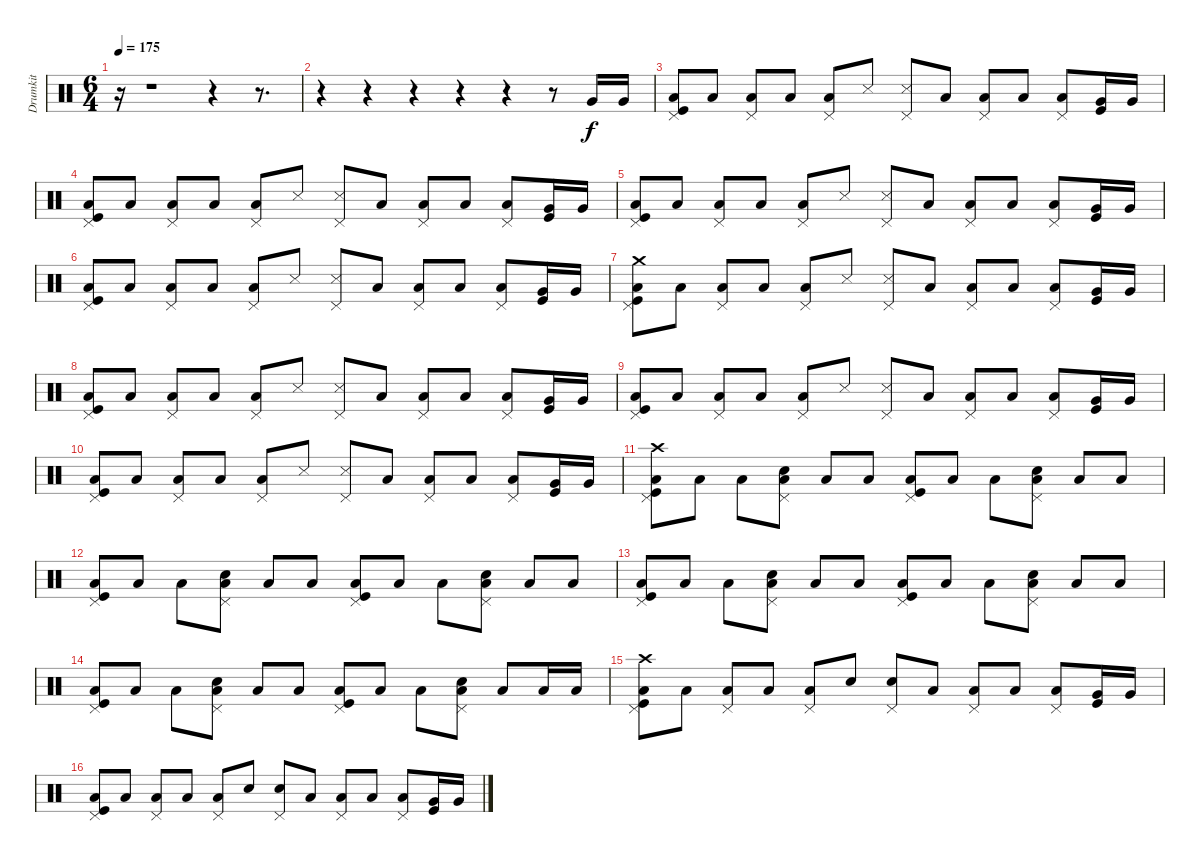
\track ("Drumkit" "Drumkit") {instrument percussion}
\staff {score}
\articulation defaults
\ts (6 4)
\tempo 175
\clef neutral
\ks c
r.16{dy f} r.1 r.4 r.8{d} |
r.4 r.4 r.4 r.4 r.4 r.8 "Very Low Tom (hit)".16 "Very Low Tom (hit)".16 |
("Low Floor Tom (hit)" "Kick (hit)" "Pedal Hi-Hat (hit)").8 "Low Floor Tom (hit)".8 ("Low Floor Tom (hit)" "Pedal Hi-Hat (hit)").8 "Low Floor Tom (hit)".8 ("Low Floor Tom (hit)" "Pedal Hi-Hat (hit)").8 "Snare (side stick) 3".8 ("Snare (side stick) 3" "Pedal Hi-Hat (hit)").8 "Low Floor Tom (hit)".8 ("Low Floor Tom (hit)" "Pedal Hi-Hat (hit)").8 "Low Floor Tom (hit)".8 ("Low Floor Tom (hit)" "Pedal Hi-Hat (hit)").8 ("Very Low Tom (hit)" "Kick (hit)").16 "Very Low Tom (hit)".16 |
("Low Floor Tom (hit)" "Kick (hit)" "Pedal Hi-Hat (hit)").8 "Low Floor Tom (hit)".8 ("Low Floor Tom (hit)" "Pedal Hi-Hat (hit)").8 "Low Floor Tom (hit)".8 ("Low Floor Tom (hit)" "Pedal Hi-Hat (hit)").8 "Snare (side stick) 3".8 ("Snare (side stick) 3" "Pedal Hi-Hat (hit)").8 "Low Floor Tom (hit)".8 ("Low Floor Tom (hit)" "Pedal Hi-Hat (hit)").8 "Low Floor Tom (hit)".8 ("Low Floor Tom (hit)" "Pedal Hi-Hat (hit)").8 ("Very Low Tom (hit)" "Kick (hit)").16 "Very Low Tom (hit)".16 |
("Low Floor Tom (hit)" "Kick (hit)" "Pedal Hi-Hat (hit)").8 "Low Floor Tom (hit)".8 ("Low Floor Tom (hit)" "Pedal Hi-Hat (hit)").8 "Low Floor Tom (hit)".8 ("Low Floor Tom (hit)" "Pedal Hi-Hat (hit)").8 "Snare (side stick) 3".8 ("Snare (side stick) 3" "Pedal Hi-Hat (hit)").8 "Low Floor Tom (hit)".8 ("Low Floor Tom (hit)" "Pedal Hi-Hat (hit)").8 "Low Floor Tom (hit)".8 ("Low Floor Tom (hit)" "Pedal Hi-Hat (hit)").8 ("Very Low Tom (hit)" "Kick (hit)").16 "Very Low Tom (hit)".16 |
("Low Floor Tom (hit)" "Kick (hit)" "Pedal Hi-Hat (hit)").8 "Low Floor Tom (hit)".8 ("Low Floor Tom (hit)" "Pedal Hi-Hat (hit)").8 "Low Floor Tom (hit)".8 ("Low Floor Tom (hit)" "Pedal Hi-Hat (hit)").8 "Snare (side stick) 3".8 ("Snare (side stick) 3" "Pedal Hi-Hat (hit)").8 "Low Floor Tom (hit)".8 ("Low Floor Tom (hit)" "Pedal Hi-Hat (hit)").8 "Low Floor Tom (hit)".8 ("Low Floor Tom (hit)" "Pedal Hi-Hat (hit)").8 ("Very Low Tom (hit)" "Kick (hit)").16 "Very Low Tom (hit)".16 |
("Low Floor Tom (hit)" "Kick (hit)" "Pedal Hi-Hat (hit)" "Crash medium (hit)").8 "Low Floor Tom (hit)".8 ("Low Floor Tom (hit)" "Pedal Hi-Hat (hit)").8 "Low Floor Tom (hit)".8 ("Low Floor Tom (hit)" "Pedal Hi-Hat (hit)").8 "Snare (side stick) 3".8 ("Snare (side stick) 3" "Pedal Hi-Hat (hit)").8 "Low Floor Tom (hit)".8 ("Low Floor Tom (hit)" "Pedal Hi-Hat (hit)").8 "Low Floor Tom (hit)".8 ("Low Floor Tom (hit)" "Pedal Hi-Hat (hit)").8 ("Very Low Tom (hit)" "Kick (hit)").16 "Very Low Tom (hit)".16 |
("Low Floor Tom (hit)" "Kick (hit)" "Pedal Hi-Hat (hit)").8 "Low Floor Tom (hit)".8 ("Low Floor Tom (hit)" "Pedal Hi-Hat (hit)").8 "Low Floor Tom (hit)".8 ("Low Floor Tom (hit)" "Pedal Hi-Hat (hit)").8 "Snare (side stick) 3".8 ("Snare (side stick) 3" "Pedal Hi-Hat (hit)").8 "Low Floor Tom (hit)".8 ("Low Floor Tom (hit)" "Pedal Hi-Hat (hit)").8 "Low Floor Tom (hit)".8 ("Low Floor Tom (hit)" "Pedal Hi-Hat (hit)").8 ("Very Low Tom (hit)" "Kick (hit)").16 "Very Low Tom (hit)".16 |
("Low Floor Tom (hit)" "Kick (hit)" "Pedal Hi-Hat (hit)").8 "Low Floor Tom (hit)".8 ("Low Floor Tom (hit)" "Pedal Hi-Hat (hit)").8 "Low Floor Tom (hit)".8 ("Low Floor Tom (hit)" "Pedal Hi-Hat (hit)").8 "Snare (side stick) 3".8 ("Snare (side stick) 3" "Pedal Hi-Hat (hit)").8 "Low Floor Tom (hit)".8 ("Low Floor Tom (hit)" "Pedal Hi-Hat (hit)").8 "Low Floor Tom (hit)".8 ("Low Floor Tom (hit)" "Pedal Hi-Hat (hit)").8 ("Very Low Tom (hit)" "Kick (hit)").16 "Very Low Tom (hit)".16 |
("Low Floor Tom (hit)" "Kick (hit)" "Pedal Hi-Hat (hit)").8 "Low Floor Tom (hit)".8 ("Low Floor Tom (hit)" "Pedal Hi-Hat (hit)").8 "Low Floor Tom (hit)".8 ("Low Floor Tom (hit)" "Pedal Hi-Hat (hit)").8 "Snare (side stick) 3".8 ("Snare (side stick) 3" "Pedal Hi-Hat (hit)").8 "Low Floor Tom (hit)".8 ("Low Floor Tom (hit)" "Pedal Hi-Hat (hit)").8 "Low Floor Tom (hit)".8 ("Low Floor Tom (hit)" "Pedal Hi-Hat (hit)").8 ("Very Low Tom (hit)" "Kick (hit)").16 "Very Low Tom (hit)".16 |
("Low Floor Tom (hit)" "Kick (hit)" "Pedal Hi-Hat (hit)" "Crash high (hit)").8 "Low Floor Tom (hit)".8 "Low Floor Tom (hit)".8 ("Low Floor Tom (hit)" "Snare (hit) 2" "Pedal Hi-Hat (hit)").8 "Low Floor Tom (hit)".8 "Low Floor Tom (hit)".8 ("Low Floor Tom (hit)" "Kick (hit)" "Pedal Hi-Hat (hit)").8 "Low Floor Tom (hit)".8 "Low Floor Tom (hit)".8 ("Low Floor Tom (hit)" "Snare (hit) 2" "Pedal Hi-Hat (hit)").8 "Low Floor Tom (hit)".8 "Low Floor Tom (hit)".8 |
("Low Floor Tom (hit)" "Kick (hit)" "Pedal Hi-Hat (hit)").8 "Low Floor Tom (hit)".8 "Low Floor Tom (hit)".8 ("Low Floor Tom (hit)" "Snare (hit) 2" "Pedal Hi-Hat (hit)").8 "Low Floor Tom (hit)".8 "Low Floor Tom (hit)".8 ("Low Floor Tom (hit)" "Kick (hit)" "Pedal Hi-Hat (hit)").8 "Low Floor Tom (hit)".8 "Low Floor Tom (hit)".8 ("Low Floor Tom (hit)" "Snare (hit) 2" "Pedal Hi-Hat (hit)").8 "Low Floor Tom (hit)".8 "Low Floor Tom (hit)".8 |
("Low Floor Tom (hit)" "Kick (hit)" "Pedal Hi-Hat (hit)").8 "Low Floor Tom (hit)".8 "Low Floor Tom (hit)".8 ("Low Floor Tom (hit)" "Snare (hit) 2" "Pedal Hi-Hat (hit)").8 "Low Floor Tom (hit)".8 "Low Floor Tom (hit)".8 ("Low Floor Tom (hit)" "Kick (hit)" "Pedal Hi-Hat (hit)").8 "Low Floor Tom (hit)".8 "Low Floor Tom (hit)".8 ("Low Floor Tom (hit)" "Snare (hit) 2" "Pedal Hi-Hat (hit)").8 "Low Floor Tom (hit)".8 "Low Floor Tom (hit)".8 |
("Low Floor Tom (hit)" "Kick (hit)" "Pedal Hi-Hat (hit)").8 "Low Floor Tom (hit)".8 "Low Floor Tom (hit)".8 ("Low Floor Tom (hit)" "Snare (hit) 2" "Pedal Hi-Hat (hit)").8 "Low Floor Tom (hit)".8 "Low Floor Tom (hit)".8 ("Low Floor Tom (hit)" "Kick (hit)" "Pedal Hi-Hat (hit)").8 "Low Floor Tom (hit)".8 "Low Floor Tom (hit)".8 ("Low Floor Tom (hit)" "Snare (hit) 2" "Pedal Hi-Hat (hit)").8 "Low Floor Tom (hit)".8 "Low Floor Tom (hit)".16 "Low Floor Tom (hit)".16 |
("Low Floor Tom (hit)" "Kick (hit)" "Pedal Hi-Hat (hit)" "Crash high (hit)").8 "Low Floor Tom (hit)".8 ("Low Floor Tom (hit)" "Pedal Hi-Hat (hit)").8 "Low Floor Tom (hit)".8 ("Low Floor Tom (hit)" "Pedal Hi-Hat (hit)").8 "Snare (hit) 2".8 ("Snare (hit) 2" "Pedal Hi-Hat (hit)").8 "Low Floor Tom (hit)".8 ("Low Floor Tom (hit)" "Pedal Hi-Hat (hit)").8 "Low Floor Tom (hit)".8 ("Low Floor Tom (hit)" "Pedal Hi-Hat (hit)").8 ("Very Low Tom (hit)" "Kick (hit)").16 "Very Low Tom (hit)".16 |
("Low Floor Tom (hit)" "Kick (hit)" "Pedal Hi-Hat (hit)").8 "Low Floor Tom (hit)".8 ("Low Floor Tom (hit)" "Pedal Hi-Hat (hit)").8 "Low Floor Tom (hit)".8 ("Low Floor Tom (hit)" "Pedal Hi-Hat (hit)").8 "Snare (hit) 2".8 ("Snare (hit) 2" "Pedal Hi-Hat (hit)").8 "Low Floor Tom (hit)".8 ("Low Floor Tom (hit)" "Pedal Hi-Hat (hit)").8 "Low Floor Tom (hit)".8 ("Low Floor Tom (hit)" "Pedal Hi-Hat (hit)").8 ("Very Low Tom (hit)" "Kick (hit)").16 "Very Low Tom (hit)".16
